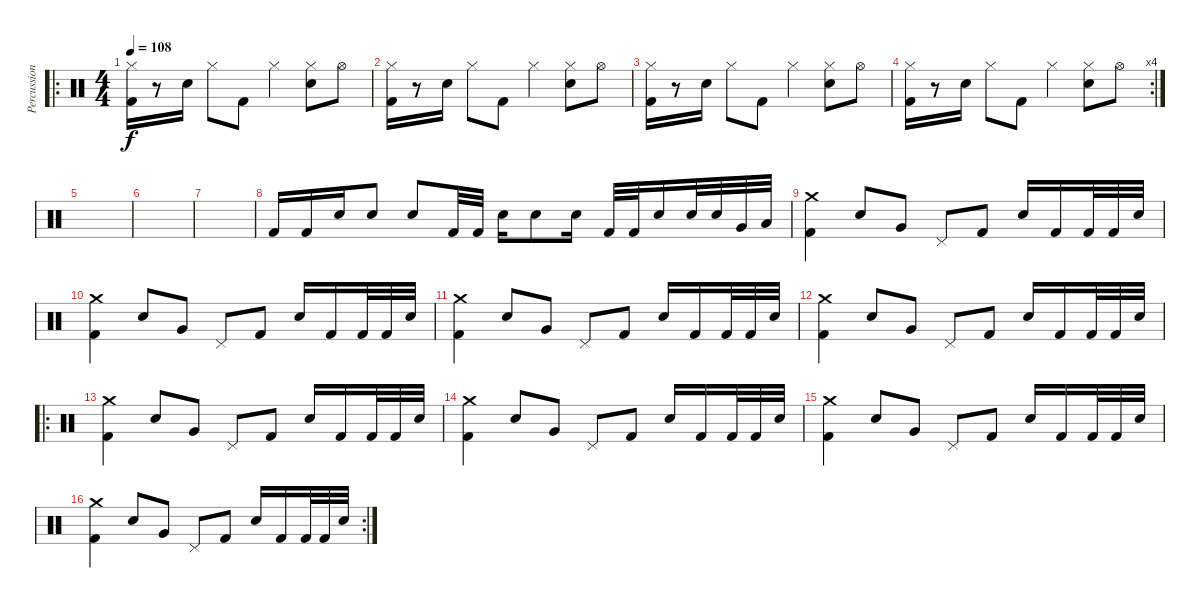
\track ("Percussions" "Percussion") {instrument percussion}
\staff {score}
\articulation defaults
\ro
\ts (4 4)
\tempo 108
\clef neutral
\ks c
("Hi-Hat (closed)" "Kick (hit) 2").16{dy f} r.8 "Electric Snare (hit)".16 "Hi-Hat (closed)".8 "Kick (hit) 2".8 "Hi-Hat (closed)".4 ("Hi-Hat (closed)" "Electric Snare (hit)").8 "Hi-Hat (open)".8 |
("Hi-Hat (closed)" "Kick (hit) 2").16 r.8 "Electric Snare (hit)".16 "Hi-Hat (closed)".8 "Kick (hit) 2".8 "Hi-Hat (closed)".4 ("Hi-Hat (closed)" "Electric Snare (hit)").8 "Hi-Hat (open)".8 |
("Hi-Hat (closed)" "Kick (hit) 2").16 r.8 "Electric Snare (hit)".16 "Hi-Hat (closed)".8 "Kick (hit) 2".8 "Hi-Hat (closed)".4 ("Hi-Hat (closed)" "Electric Snare (hit)").8 "Hi-Hat (open)".8 |
\rc 4
("Hi-Hat (closed)" "Kick (hit) 2").16 r.8 "Electric Snare (hit)".16 "Hi-Hat (closed)".8 "Kick (hit) 2".8 "Hi-Hat (closed)".4 ("Hi-Hat (closed)" "Electric Snare (hit)").8 "Hi-Hat (open)".8 |
|
|
|
"Kick (hit) 2".16 "Kick (hit) 2".16 "Electric Snare (hit)".16 "Electric Snare (hit)".8 "Electric Snare (hit)".8 "Kick (hit) 2".32 "Kick (hit) 2".32 "Electric Snare (hit)".16 "Electric Snare (hit)".8 "Electric Snare (hit)".16 "Kick (hit) 2".32 "Kick (hit) 2".32 "Electric Snare (hit)".16 "Electric Snare (hit)".32 "Electric Snare (hit)".32 "Very Low Tom (hit)".32 "Low Tom (hit)".32 |
("Crash medium (hit)" "Kick (hit) 2").4 "Electric Snare (hit)".8 "Very Low Tom (hit)".8 "Pedal Hi-Hat (hit)".8 "Kick (hit) 2".8 "Electric Snare (hit)".16 "Kick (hit) 2".16 "Kick (hit) 2".32 "Kick (hit) 2".32 "Electric Snare (hit)".32 |
("Crash medium (hit)" "Kick (hit) 2").4 "Electric Snare (hit)".8 "Very Low Tom (hit)".8 "Pedal Hi-Hat (hit)".8 "Kick (hit) 2".8 "Electric Snare (hit)".16 "Kick (hit) 2".16 "Kick (hit) 2".32 "Kick (hit) 2".32 "Electric Snare (hit)".32 |
("Crash medium (hit)" "Kick (hit) 2").4 "Electric Snare (hit)".8 "Very Low Tom (hit)".8 "Pedal Hi-Hat (hit)".8 "Kick (hit) 2".8 "Electric Snare (hit)".16 "Kick (hit) 2".16 "Kick (hit) 2".32 "Kick (hit) 2".32 "Electric Snare (hit)".32 |
("Crash medium (hit)" "Kick (hit) 2").4 "Electric Snare (hit)".8 "Very Low Tom (hit)".8 "Pedal Hi-Hat (hit)".8 "Kick (hit) 2".8 "Electric Snare (hit)".16 "Kick (hit) 2".16 "Kick (hit) 2".32 "Kick (hit) 2".32 "Electric Snare (hit)".32 |
\ro
("Crash medium (hit)" "Kick (hit) 2").4 "Electric Snare (hit)".8 "Very Low Tom (hit)".8 "Pedal Hi-Hat (hit)".8 "Kick (hit) 2".8 "Electric Snare (hit)".16 "Kick (hit) 2".16 "Kick (hit) 2".32 "Kick (hit) 2".32 "Electric Snare (hit)".32 |
("Crash medium (hit)" "Kick (hit) 2").4 "Electric Snare (hit)".8 "Very Low Tom (hit)".8 "Pedal Hi-Hat (hit)".8 "Kick (hit) 2".8 "Electric Snare (hit)".16 "Kick (hit) 2".16 "Kick (hit) 2".32 "Kick (hit) 2".32 "Electric Snare (hit)".32 |
("Crash medium (hit)" "Kick (hit) 2").4 "Electric Snare (hit)".8 "Very Low Tom (hit)".8 "Pedal Hi-Hat (hit)".8 "Kick (hit) 2".8 "Electric Snare (hit)".16 "Kick (hit) 2".16 "Kick (hit) 2".32 "Kick (hit) 2".32 "Electric Snare (hit)".32 |
\rc 2
("Crash medium (hit)" "Kick (hit) 2").4 "Electric Snare (hit)".8 "Very Low Tom (hit)".8 "Pedal Hi-Hat (hit)".8 "Kick (hit) 2".8 "Electric Snare (hit)".16 "Kick (hit) 2".16 "Kick (hit) 2".32 "Kick (hit) 2".32 "Electric Snare (hit)".32
